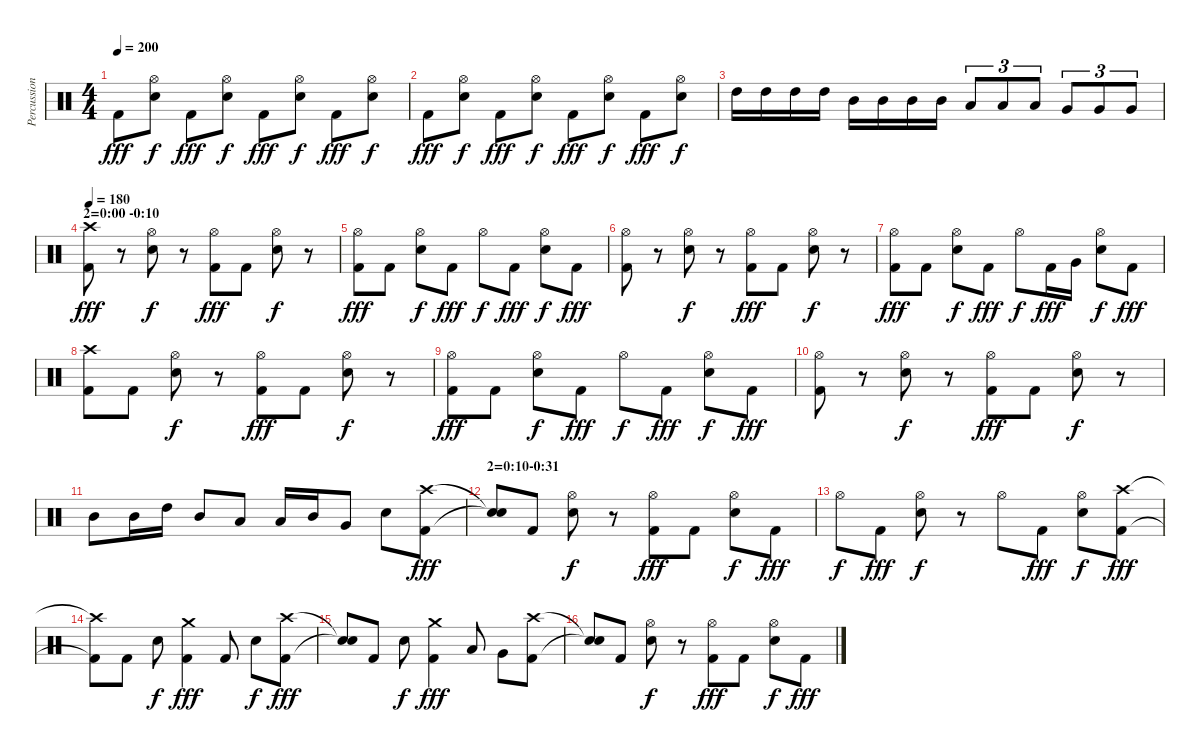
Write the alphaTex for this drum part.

\track ("Percussion" "Percussion") {instrument percussion}
\staff {score}
\articulation defaults
\ts (4 4)
\tempo 200
\clef neutral
\ks c "Kick (hit) 2".8{dy fff}
("Hi-Hat (open)" "Snare (hit) 2").8{dy f} "Kick (hit) 2".8{dy fff} ("Hi-Hat (open)" "Snare (hit) 2").8{dy f} "Kick (hit) 2".8{dy fff} ("Hi-Hat (open)" "Snare (hit) 2").8{dy f} "Kick (hit) 2".8{dy fff} ("Hi-Hat (open)" "Snare (hit) 2").8{dy f} |
"Kick (hit) 2".8{dy fff} ("Hi-Hat (open)" "Snare (hit) 2").8{dy f} "Kick (hit) 2".8{dy fff} ("Hi-Hat (open)" "Snare (hit) 2").8{dy f} "Kick (hit) 2".8{dy fff} ("Hi-Hat (open)" "Snare (hit) 2").8{dy f} "Kick (hit) 2".8{dy fff} ("Hi-Hat (open)" "Snare (hit) 2").8{dy f} |
"High Tom (hit)".16 "High Tom (hit)".16 "High Tom (hit)".16 "High Tom (hit)".16 "Mid Tom (hit)".16 "Mid Tom (hit)".16 "Mid Tom (hit)".16 "Mid Tom (hit)".16 "Low Tom (hit)".8{tu (3 2)} "Low Tom (hit)".8{tu (3 2)} "Low Tom (hit)".8{tu (3 2)} "Very Low Tom (hit)".8{tu (3 2)} "Very Low Tom (hit)".8{tu (3 2)} "Very Low Tom (hit)".8{tu (3 2)} |
\section ("" "2=0:00 -0:10")
\tempo 180
("Crash high (hit)" "Kick (hit) 2").8{dy fff} r.8 ("Hi-Hat (open)" "Snare (hit) 2").8{dy f} r.8 ("Hi-Hat (open)" "Kick (hit) 2").8{dy fff} "Kick (hit) 2".8 ("Hi-Hat (open)" "Snare (hit) 2").8{dy f} r.8 |
("Hi-Hat (open)" "Kick (hit) 2").8{dy fff} "Kick (hit) 2".8 ("Hi-Hat (open)" "Snare (hit) 2").8{dy f} "Kick (hit) 2".8{dy fff} "Hi-Hat (open)".8{dy f} "Kick (hit) 2".8{dy fff} ("Hi-Hat (open)" "Snare (hit) 2").8{dy f} "Kick (hit) 2".8{dy fff} |
("Hi-Hat (open)" "Kick (hit) 2").8 r.8 ("Hi-Hat (open)" "Snare (hit) 2").8{dy f} r.8 ("Hi-Hat (open)" "Kick (hit) 2").8{dy fff} "Kick (hit) 2".8 ("Hi-Hat (open)" "Snare (hit) 2").8{dy f} r.8 |
("Hi-Hat (open)" "Kick (hit) 2").8{dy fff} "Kick (hit) 2".8 ("Hi-Hat (open)" "Snare (hit) 2").8{dy f} "Kick (hit) 2".8{dy fff} "Hi-Hat (open)".8{dy f} "Kick (hit) 2".16{dy fff} "Very Low Tom (hit)".16 ("Hi-Hat (open)" "Snare (hit) 2").8{dy f} "Kick (hit) 2".8{dy fff} |
("Crash high (hit)" "Kick (hit) 2").8 "Kick (hit) 2".8 ("Hi-Hat (open)" "Snare (hit) 2").8{dy f} r.8 ("Hi-Hat (open)" "Kick (hit) 2").8{dy fff} "Kick (hit) 2".8 ("Hi-Hat (open)" "Snare (hit) 2").8{dy f} r.8 |
("Hi-Hat (open)" "Kick (hit) 2").8{dy fff} "Kick (hit) 2".8 ("Hi-Hat (open)" "Snare (hit) 2").8{dy f} "Kick (hit) 2".8{dy fff} "Hi-Hat (open)".8{dy f} "Kick (hit) 2".8{dy fff} ("Hi-Hat (open)" "Snare (hit) 2").8{dy f} "Kick (hit) 2".8{dy fff} |
("Hi-Hat (open)" "Kick (hit) 2").8 r.8 ("Hi-Hat (open)" "Snare (hit) 2").8{dy f} r.8 ("Hi-Hat (open)" "Kick (hit) 2").8{dy fff} "Kick (hit) 2".8 ("Hi-Hat (open)" "Snare (hit) 2").8{dy f} r.8 |
"Mid Tom (hit)".8 "Mid Tom (hit)".16 "High Tom (hit)".16 "Mid Tom (hit)".8 "Low Tom (hit)".8 "Low Tom (hit)".16 "Mid Tom (hit)".16 "Very Low Tom (hit)".8 "Snare (hit) 2".8 ("Crash high (hit)" "Kick (hit) 2").8{dy fff} |
\section ("" "2=0:10-0:31")
("Snare (hit)"{t} "Snare (hit)"{t}).8 "Kick (hit) 2".8 ("Hi-Hat (open)" "Snare (hit) 2").8{dy f} r.8 ("Hi-Hat (open)" "Kick (hit) 2").8{dy fff} "Kick (hit) 2".8 ("Hi-Hat (open)" "Snare (hit) 2").8{dy f} "Kick (hit) 2".8{dy fff} |
"Hi-Hat (open)".8{dy f} "Kick (hit) 2".8{dy fff} ("Hi-Hat (open)" "Snare (hit) 2").8{dy f} r.8 "Hi-Hat (open)".8 "Kick (hit) 2".8{dy fff} ("Hi-Hat (open)" "Snare (hit) 2").8{dy f} ("Crash high (hit)" "Kick (hit) 2").8{dy fff} |
("Crash high (hit)"{t} "Kick (hit) 2"{t}).8 "Kick (hit) 2".8 "Snare (hit) 2".8{dy f} ("Crash medium (hit)" "Kick (hit) 2").4{dy fff} "Kick (hit) 2".8 "Snare (hit) 2".8{dy f} ("Crash high (hit)" "Kick (hit) 2").8{dy fff} |
("Snare (hit)"{t} "Snare (hit)"{t}).8 "Kick (hit) 2".8 "Snare (hit) 2".8{dy f} ("Crash medium (hit)" "Kick (hit) 2").4{dy fff} "Low Tom (hit)".8 "Very Low Tom (hit)".8 ("Crash high (hit)" "Kick (hit) 2").8 |
("Snare (hit)"{t} "Snare (hit)"{t}).8 "Kick (hit) 2".8 ("Hi-Hat (open)" "Snare (hit) 2").8{dy f} r.8 ("Hi-Hat (open)" "Kick (hit) 2").8{dy fff} "Kick (hit) 2".8 ("Hi-Hat (open)" "Snare (hit) 2").8{dy f} "Kick (hit) 2".8{dy fff}
